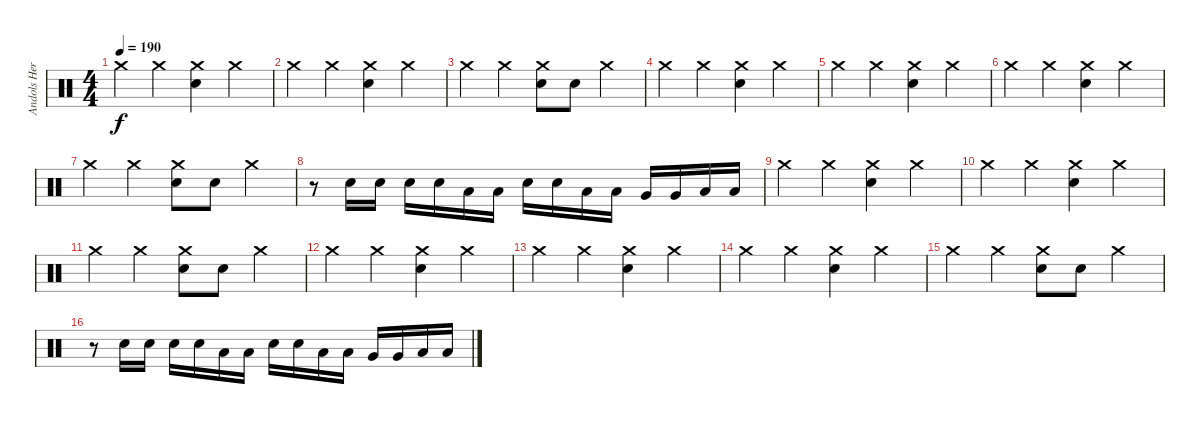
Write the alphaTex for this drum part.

\track ("Andols Herrick" "Andols Her") {instrument percussion}
\staff {score}
\articulation defaults
\ts (4 4)
\tempo 190
\clef neutral
\ks c "Crash medium (hit)".4{dy f} "Crash medium (hit)".4
("Crash medium (hit)" "Electric Snare (hit)").4 "Crash medium (hit)".4 |
"Crash medium (hit)".4 "Crash medium (hit)".4 ("Crash medium (hit)" "Electric Snare (hit)").4 "Crash medium (hit)".4 |
"Crash medium (hit)".4 "Crash medium (hit)".4 ("Crash medium (hit)" "Electric Snare (hit)").8 "Electric Snare (hit)".8 "Crash medium (hit)".4 |
"Crash medium (hit)".4 "Crash medium (hit)".4 ("Crash medium (hit)" "Electric Snare (hit)").4 "Crash medium (hit)".4 |
"Crash medium (hit)".4 "Crash medium (hit)".4 ("Crash medium (hit)" "Electric Snare (hit)").4 "Crash medium (hit)".4 |
"Crash medium (hit)".4 "Crash medium (hit)".4 ("Crash medium (hit)" "Electric Snare (hit)").4 "Crash medium (hit)".4 |
"Crash medium (hit)".4 "Crash medium (hit)".4 ("Crash medium (hit)" "Electric Snare (hit)").8 "Electric Snare (hit)".8 "Crash medium (hit)".4 |
r.8 "Electric Snare (hit)".16 "Electric Snare (hit)".16 "Electric Snare (hit)".16 "Electric Snare (hit)".16 "Low Tom (hit)".16 "Low Tom (hit)".16 "Electric Snare (hit)".16 "Electric Snare (hit)".16 "Low Tom (hit)".16 "Low Tom (hit)".16 "Very Low Tom (hit)".16 "Very Low Tom (hit)".16 "Low Floor Tom (hit)".16 "Low Floor Tom (hit)".16 |
"Crash medium (hit)".4 "Crash medium (hit)".4 ("Crash medium (hit)" "Electric Snare (hit)").4 "Crash medium (hit)".4 |
"Crash medium (hit)".4 "Crash medium (hit)".4 ("Crash medium (hit)" "Electric Snare (hit)").4 "Crash medium (hit)".4 |
"Crash medium (hit)".4 "Crash medium (hit)".4 ("Crash medium (hit)" "Electric Snare (hit)").8 "Electric Snare (hit)".8 "Crash medium (hit)".4 |
"Crash medium (hit)".4 "Crash medium (hit)".4 ("Crash medium (hit)" "Electric Snare (hit)").4 "Crash medium (hit)".4 |
"Crash medium (hit)".4 "Crash medium (hit)".4 ("Crash medium (hit)" "Electric Snare (hit)").4 "Crash medium (hit)".4 |
"Crash medium (hit)".4 "Crash medium (hit)".4 ("Crash medium (hit)" "Electric Snare (hit)").4 "Crash medium (hit)".4 |
"Crash medium (hit)".4 "Crash medium (hit)".4 ("Crash medium (hit)" "Electric Snare (hit)").8 "Electric Snare (hit)".8 "Crash medium (hit)".4 |
r.8 "Electric Snare (hit)".16 "Electric Snare (hit)".16 "Electric Snare (hit)".16 "Electric Snare (hit)".16 "Low Tom (hit)".16 "Low Tom (hit)".16 "Electric Snare (hit)".16 "Electric Snare (hit)".16 "Low Tom (hit)".16 "Low Tom (hit)".16 "Very Low Tom (hit)".16 "Very Low Tom (hit)".16 "Low Floor Tom (hit)".16 "Low Floor Tom (hit)".16
